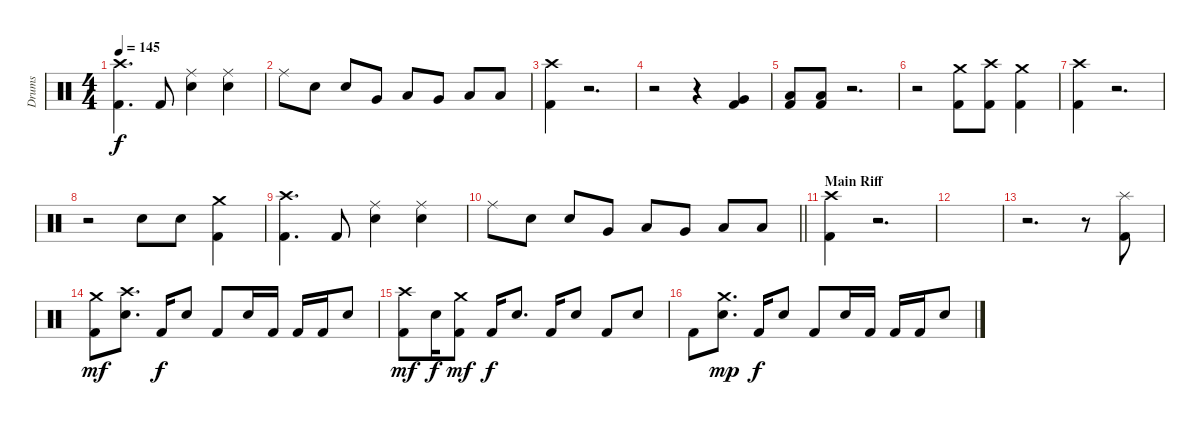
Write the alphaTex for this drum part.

\track ("Drums" "Drums") {instrument percussion}
\staff {score}
\articulation defaults
\ts (4 4)
\tempo 145
\clef neutral
\ks c
("Crash high (hit)" "Kick (hit) 2").4{d dy f} "Kick (hit) 2".8 ("Ride (middle)" "Snare (hit) 2").4 ("Ride (middle)" "Snare (hit) 2").4 |
"Ride (middle)".8 "Snare (hit) 2".8 "Snare (hit) 2".8 "Very Low Tom (hit)".8 "Low Tom (hit)".8 "Very Low Tom (hit)".8 "Low Floor Tom (hit)".8 "Low Floor Tom (hit)".8 |
("Crash high (hit)" "Kick (hit) 2").4 r.2{d} |
r.2 r.4 ("Very Low Tom (hit)" "Kick (hit) 2").4 |
("Low Floor Tom (hit)" "Kick (hit) 2").8 ("Low Floor Tom (hit)" "Kick (hit) 2").8 r.2{d} |
r.2 ("Crash medium (hit)" "Kick (hit) 2").8 ("Crash high (hit)" "Kick (hit) 2").8 ("Crash medium (hit)" "Kick (hit) 2").4 |
("Crash high (hit)" "Kick (hit) 2").4 r.2{d} |
r.2 "Snare (hit) 2".8 "Snare (hit) 2".8 ("Crash medium (hit)" "Kick (hit) 2").4 |
("Crash high (hit)" "Kick (hit) 2").4{d} "Kick (hit) 2".8 ("Ride (middle)" "Snare (hit) 2").4 ("Ride (middle)" "Snare (hit) 2").4 |
\barLineRight lightlight "Ride (middle)".8 "Snare (hit) 2".8 "Snare (hit) 2".8 "Very Low Tom (hit)".8 "Low Tom (hit)".8 "Very Low Tom (hit)".8 "Low Floor Tom (hit)".8 "Low Floor Tom (hit)".8
|
\section ("" "Main Riff")
("Crash high (hit)" "Kick (hit) 2").4 r.2{d} |
|
r.2{d} r.8 ("Splash (hit)" "Kick (hit) 2").8 |
("Crash medium (hit)" "Kick (hit) 2").8{dy mf} ("Crash high (hit)" "Snare (hit) 2").8{d} "Kick (hit) 2".16{dy f} "Snare (hit) 2".8 "Kick (hit) 2".8 "Snare (hit) 2".16 "Kick (hit) 2".16 "Kick (hit) 2".16 "Kick (hit) 2".16 "Snare (hit) 2".8 |
("Crash high (hit)" "Kick (hit) 2").8{dy mf} "Snare (hit) 2".16{dy f} ("Crash medium (hit)" "Kick (hit) 2").8{dy mf} "Kick (hit) 2".16{dy f} "Snare (hit) 2".8{d} "Kick (hit) 2".16 "Snare (hit) 2".8 "Kick (hit) 2".8 "Snare (hit) 2".8 |
"Kick (hit) 2".8 ("Crash medium (hit)" "Snare (hit) 2").8{d dy mp} "Kick (hit) 2".16{dy f} "Snare (hit) 2".8 "Kick (hit) 2".8 "Snare (hit) 2".16 "Kick (hit) 2".16 "Kick (hit) 2".16 "Kick (hit) 2".16 "Snare (hit) 2".8
